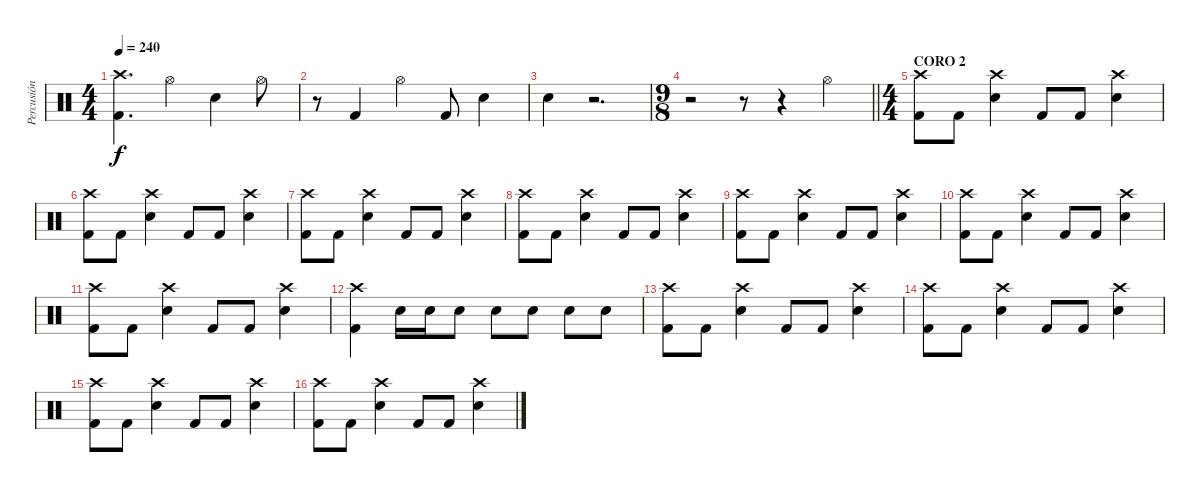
\track ("Percusión" "Percusión") {instrument percussion}
\staff {score}
\articulation defaults
\ts (4 4)
\tempo 240
\clef neutral
\ks c
("Crash high (hit)" "Kick (hit) 2").4{d dy f} "Hi-Hat (open)".4 "Electric Snare (hit)".4 "Hi-Hat (open)".8 |
r.8 "Kick (hit) 2".4 "Hi-Hat (open)".4 "Kick (hit) 2".8 "Electric Snare (hit)".4 |
"Electric Snare (hit)".4 r.2{d} |
\ts (9 8)
\barLineRight lightlight
r.2 r.8 r.4 "Hi-Hat (open)".4 |
\ts (4 4)
\section ("" "CORO 2 ")
("Crash high (hit)" "Kick (hit) 2").8 "Kick (hit) 2".8 ("Crash high (hit)" "Electric Snare (hit)").4 "Kick (hit) 2".8 "Kick (hit) 2".8 ("Crash high (hit)" "Electric Snare (hit)").4 |
("Crash high (hit)" "Kick (hit) 2").8 "Kick (hit) 2".8 ("Crash high (hit)" "Electric Snare (hit)").4 "Kick (hit) 2".8 "Kick (hit) 2".8 ("Crash high (hit)" "Electric Snare (hit)").4 |
("Crash high (hit)" "Kick (hit) 2").8 "Kick (hit) 2".8 ("Crash high (hit)" "Electric Snare (hit)").4 "Kick (hit) 2".8 "Kick (hit) 2".8 ("Crash high (hit)" "Electric Snare (hit)").4 |
("Crash high (hit)" "Kick (hit) 2").8 "Kick (hit) 2".8 ("Crash high (hit)" "Electric Snare (hit)").4 "Kick (hit) 2".8 "Kick (hit) 2".8 ("Crash high (hit)" "Electric Snare (hit)").4 |
("Crash high (hit)" "Kick (hit) 2").8 "Kick (hit) 2".8 ("Crash high (hit)" "Electric Snare (hit)").4 "Kick (hit) 2".8 "Kick (hit) 2".8 ("Crash high (hit)" "Electric Snare (hit)").4 |
("Crash high (hit)" "Kick (hit) 2").8 "Kick (hit) 2".8 ("Crash high (hit)" "Electric Snare (hit)").4 "Kick (hit) 2".8 "Kick (hit) 2".8 ("Crash high (hit)" "Electric Snare (hit)").4 |
("Crash high (hit)" "Kick (hit) 2").8 "Kick (hit) 2".8 ("Crash high (hit)" "Electric Snare (hit)").4 "Kick (hit) 2".8 "Kick (hit) 2".8 ("Crash high (hit)" "Electric Snare (hit)").4 |
("Crash high (hit)" "Kick (hit) 2").4 "Electric Snare (hit)".16 "Electric Snare (hit)".16 "Electric Snare (hit)".8 "Electric Snare (hit)".8 "Electric Snare (hit)".8 "Electric Snare (hit)".8 "Electric Snare (hit)".8 |
("Crash high (hit)" "Kick (hit) 2").8 "Kick (hit) 2".8 ("Crash high (hit)" "Electric Snare (hit)").4 "Kick (hit) 2".8 "Kick (hit) 2".8 ("Crash high (hit)" "Electric Snare (hit)").4 |
("Crash high (hit)" "Kick (hit) 2").8 "Kick (hit) 2".8 ("Crash high (hit)" "Electric Snare (hit)").4 "Kick (hit) 2".8 "Kick (hit) 2".8 ("Crash high (hit)" "Electric Snare (hit)").4 |
("Crash high (hit)" "Kick (hit) 2").8 "Kick (hit) 2".8 ("Crash high (hit)" "Electric Snare (hit)").4 "Kick (hit) 2".8 "Kick (hit) 2".8 ("Crash high (hit)" "Electric Snare (hit)").4 |
("Crash high (hit)" "Kick (hit) 2").8 "Kick (hit) 2".8 ("Crash high (hit)" "Electric Snare (hit)").4 "Kick (hit) 2".8 "Kick (hit) 2".8 ("Crash high (hit)" "Electric Snare (hit)").4
